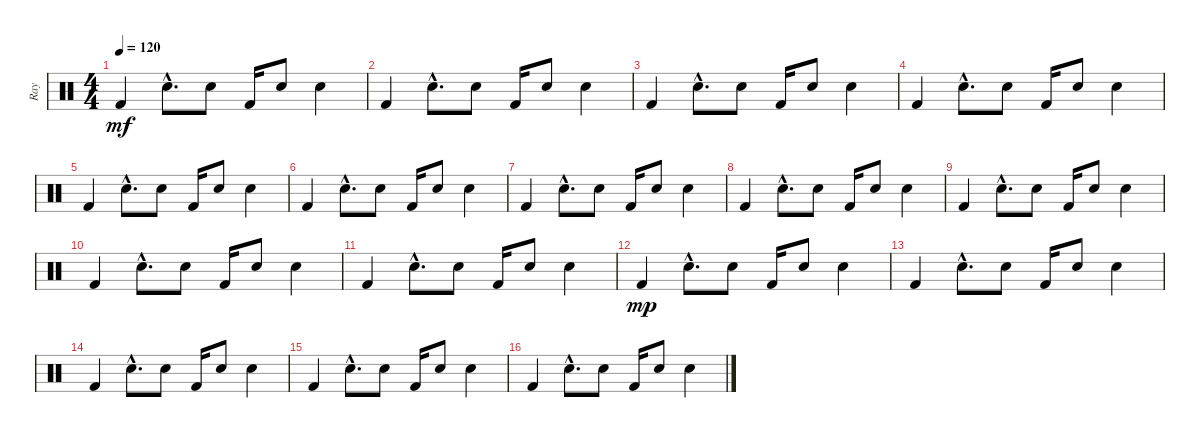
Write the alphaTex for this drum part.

\track ("Ray" "Ray") {instrument percussion}
\staff {score}
\articulation defaults
\ts (4 4)
\tempo 120
\clef neutral
\ks c "Kick (hit) 2".4{dy mf} "Snare (hit) 2"{hac}.8{d} "Snare (hit) 2".8 "Kick (hit) 2".16 "Snare (hit) 2".8 "Snare (hit) 2".4
|
"Kick (hit) 2".4 "Snare (hit) 2"{hac}.8{d} "Snare (hit) 2".8 "Kick (hit) 2".16 "Snare (hit) 2".8 "Snare (hit) 2".4 |
"Kick (hit) 2".4 "Snare (hit) 2"{hac}.8{d} "Snare (hit) 2".8 "Kick (hit) 2".16 "Snare (hit) 2".8 "Snare (hit) 2".4 |
"Kick (hit) 2".4 "Snare (hit) 2"{hac}.8{d} "Snare (hit) 2".8 "Kick (hit) 2".16 "Snare (hit) 2".8 "Snare (hit) 2".4 |
"Kick (hit) 2".4 "Snare (hit) 2"{hac}.8{d} "Snare (hit) 2".8 "Kick (hit) 2".16 "Snare (hit) 2".8 "Snare (hit) 2".4 |
"Kick (hit) 2".4 "Snare (hit) 2"{hac}.8{d} "Snare (hit) 2".8 "Kick (hit) 2".16 "Snare (hit) 2".8 "Snare (hit) 2".4 |
"Kick (hit) 2".4 "Snare (hit) 2"{hac}.8{d} "Snare (hit) 2".8 "Kick (hit) 2".16 "Snare (hit) 2".8 "Snare (hit) 2".4 |
"Kick (hit) 2".4 "Snare (hit) 2"{hac}.8{d} "Snare (hit) 2".8 "Kick (hit) 2".16 "Snare (hit) 2".8 "Snare (hit) 2".4 |
"Kick (hit) 2".4 "Snare (hit) 2"{hac}.8{d} "Snare (hit) 2".8 "Kick (hit) 2".16 "Snare (hit) 2".8 "Snare (hit) 2".4 |
"Kick (hit) 2".4 "Snare (hit) 2"{hac}.8{d} "Snare (hit) 2".8 "Kick (hit) 2".16 "Snare (hit) 2".8 "Snare (hit) 2".4 |
"Kick (hit) 2".4 "Snare (hit) 2"{hac}.8{d} "Snare (hit) 2".8 "Kick (hit) 2".16 "Snare (hit) 2".8 "Snare (hit) 2".4 |
"Kick (hit) 2".4{dy mp} "Snare (hit) 2"{hac}.8{d} "Snare (hit) 2".8 "Kick (hit) 2".16 "Snare (hit) 2".8 "Snare (hit) 2".4 |
"Kick (hit) 2".4 "Snare (hit) 2"{hac}.8{d} "Snare (hit) 2".8 "Kick (hit) 2".16 "Snare (hit) 2".8 "Snare (hit) 2".4 |
"Kick (hit) 2".4 "Snare (hit) 2"{hac}.8{d} "Snare (hit) 2".8 "Kick (hit) 2".16 "Snare (hit) 2".8 "Snare (hit) 2".4 |
"Kick (hit) 2".4 "Snare (hit) 2"{hac}.8{d} "Snare (hit) 2".8 "Kick (hit) 2".16 "Snare (hit) 2".8 "Snare (hit) 2".4 |
"Kick (hit) 2".4 "Snare (hit) 2"{hac}.8{d} "Snare (hit) 2".8 "Kick (hit) 2".16 "Snare (hit) 2".8 "Snare (hit) 2".4
